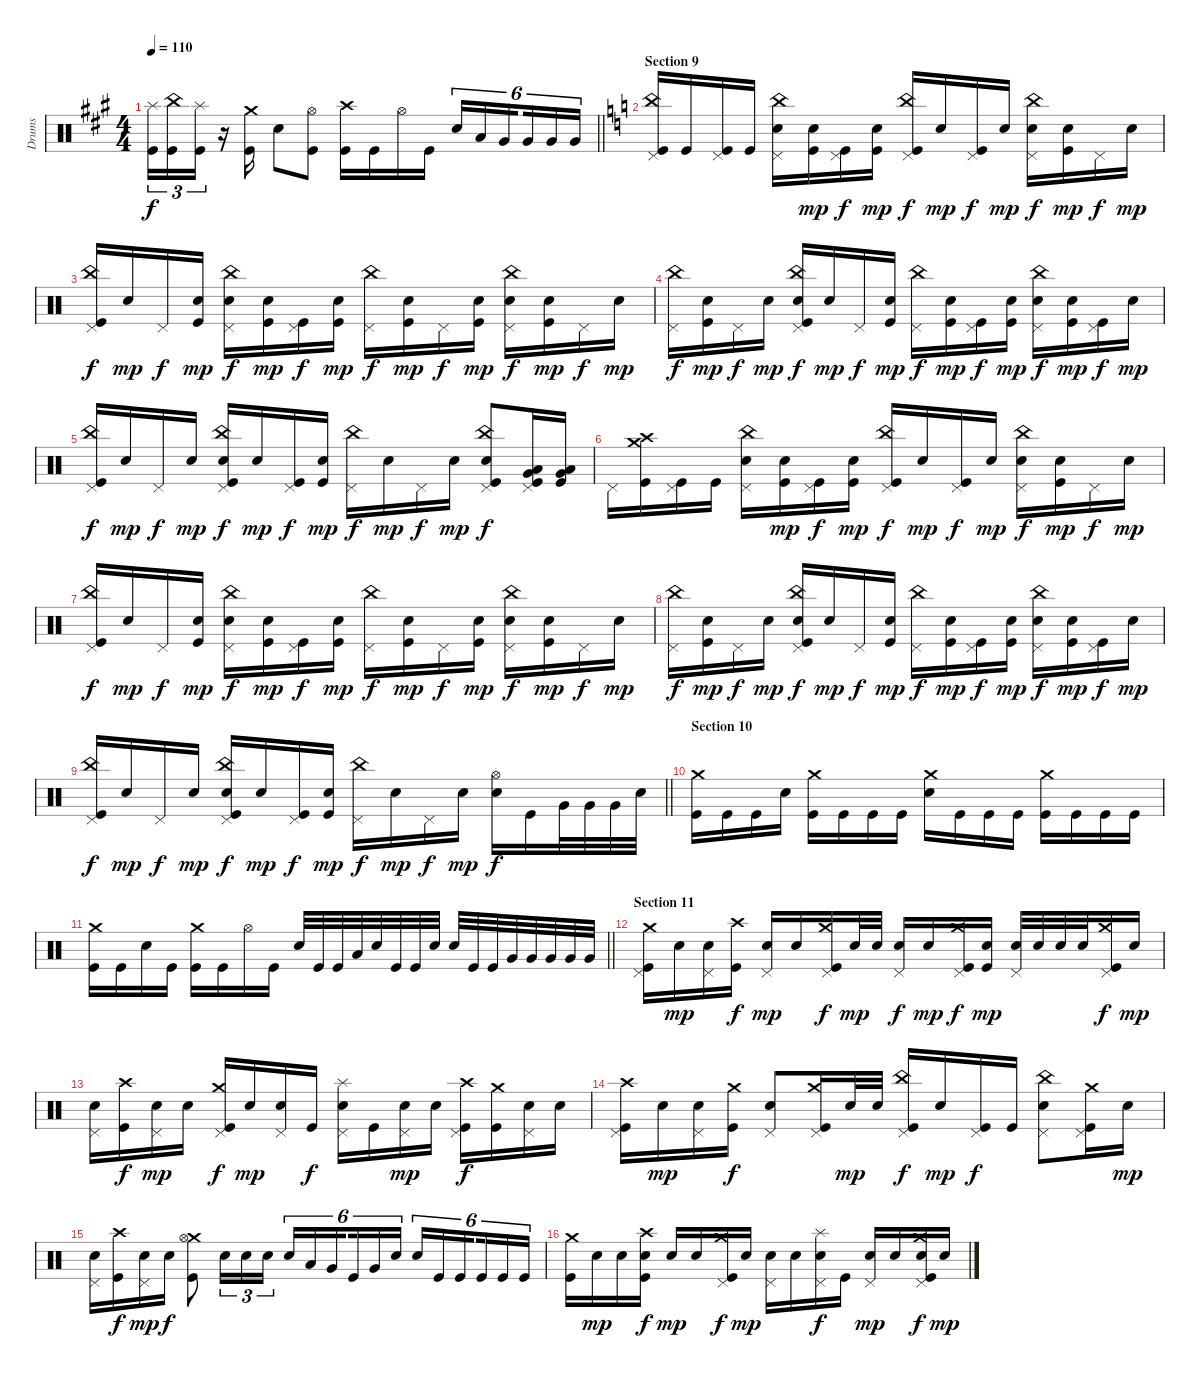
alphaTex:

\track ("Drums" "Drums") {instrument percussion}
\staff {score}
\articulation defaults
\ts (4 4)
\tempo 110
\clef neutral
\barLineRight lightlight
\ks f#minor
("Splash (hit)" "Kick (hit)").16{tu (3 2) dy f} ("China (hit)" "Kick (hit)").16{tu (3 2)} ("Splash (hit)" "Kick (hit)").16{tu (3 2)} r.16 ("Crash medium (hit)" "Kick (hit)").16 "Electric Snare (hit)".8 ("Hi-Hat (open)" "Kick (hit)").8 ("Crash high (hit)" "Kick (hit)").16 "Kick (hit)".16 "Hi-Hat (open)".16 "Kick (hit)".16 "Electric Snare (hit)".16{tu (6 4)} "Low Tom (hit)".16{tu (6 4)} "Very Low Tom (hit)".16{tu (6 4) beam splitsecondary} "Very Low Tom (hit)".16{tu (6 4)} "Very Low Tom (hit)".16{tu (6 4)} "Very Low Tom (hit)".16{tu (6 4)} |
\section ("" "Section 9")
\ks c
("China (hit)" "Kick (hit)" "Pedal Hi-Hat (hit)").16 "Kick (hit)".16 ("Kick (hit)" "Pedal Hi-Hat (hit)").16 "Kick (hit)".16 ("China (hit)" "Electric Snare (hit)" "Pedal Hi-Hat (hit)").16 ("Electric Snare (hit)" "Kick (hit)").16{dy mp} ("Kick (hit)" "Pedal Hi-Hat (hit)").16{dy f} ("Electric Snare (hit)" "Kick (hit)").16{dy mp} ("China (hit)" "Kick (hit)" "Pedal Hi-Hat (hit)").16{dy f} "Electric Snare (hit)".16{dy mp} ("Kick (hit)" "Pedal Hi-Hat (hit)").16{dy f} "Electric Snare (hit)".16{dy mp} ("China (hit)" "Electric Snare (hit)" "Pedal Hi-Hat (hit)").16{dy f} ("Electric Snare (hit)" "Kick (hit)").16{dy mp} "Pedal Hi-Hat (hit)".16{dy f} "Electric Snare (hit)".16{dy mp} |
("China (hit)" "Kick (hit)" "Pedal Hi-Hat (hit)").16{dy f} "Electric Snare (hit)".16{dy mp} "Pedal Hi-Hat (hit)".16{dy f} ("Electric Snare (hit)" "Kick (hit)").16{dy mp} ("China (hit)" "Electric Snare (hit)" "Pedal Hi-Hat (hit)").16{dy f} ("Electric Snare (hit)" "Kick (hit)").16{dy mp} ("Kick (hit)" "Pedal Hi-Hat (hit)").16{dy f} ("Electric Snare (hit)" "Kick (hit)").16{dy mp} ("China (hit)" "Pedal Hi-Hat (hit)").16{dy f} ("Electric Snare (hit)" "Kick (hit)").16{dy mp} "Pedal Hi-Hat (hit)".16{dy f} ("Electric Snare (hit)" "Kick (hit)").16{dy mp} ("China (hit)" "Electric Snare (hit)" "Pedal Hi-Hat (hit)").16{dy f} ("Electric Snare (hit)" "Kick (hit)").16{dy mp} "Pedal Hi-Hat (hit)".16{dy f} "Electric Snare (hit)".16{dy mp} |
("China (hit)" "Pedal Hi-Hat (hit)").16{dy f} ("Electric Snare (hit)" "Kick (hit)").16{dy mp} "Pedal Hi-Hat (hit)".16{dy f} "Electric Snare (hit)".16{dy mp} ("China (hit)" "Electric Snare (hit)" "Kick (hit)" "Pedal Hi-Hat (hit)").16{dy f} "Electric Snare (hit)".16{dy mp} "Pedal Hi-Hat (hit)".16{dy f} ("Electric Snare (hit)" "Kick (hit)").16{dy mp} ("China (hit)" "Pedal Hi-Hat (hit)").16{dy f} ("Electric Snare (hit)" "Kick (hit)").16{dy mp} ("Kick (hit)" "Pedal Hi-Hat (hit)").16{dy f} ("Electric Snare (hit)" "Kick (hit)").16{dy mp} ("China (hit)" "Electric Snare (hit)" "Pedal Hi-Hat (hit)").16{dy f} ("Electric Snare (hit)" "Kick (hit)").16{dy mp} ("Kick (hit)" "Pedal Hi-Hat (hit)").16{dy f} "Electric Snare (hit)".16{dy mp} |
("China (hit)" "Kick (hit)" "Pedal Hi-Hat (hit)").16{dy f} "Electric Snare (hit)".16{dy mp} "Pedal Hi-Hat (hit)".16{dy f} "Electric Snare (hit)".16{dy mp} ("China (hit)" "Electric Snare (hit)" "Kick (hit)" "Pedal Hi-Hat (hit)").16{dy f} "Electric Snare (hit)".16{dy mp} ("Kick (hit)" "Pedal Hi-Hat (hit)").16{dy f} ("Electric Snare (hit)" "Kick (hit)").16{dy mp} ("China (hit)" "Pedal Hi-Hat (hit)").16{dy f} "Electric Snare (hit)".16{dy mp} "Pedal Hi-Hat (hit)".16{dy f} "Electric Snare (hit)".16{dy mp} ("China (hit)" "Electric Snare (hit)" "Kick (hit)" "Pedal Hi-Hat (hit)").8{dy f} ("Low Tom (hit)" "Very Low Tom (hit)" "Kick (hit)" "Pedal Hi-Hat (hit)").16 ("Low Tom (hit)" "Very Low Tom (hit)" "Kick (hit)").16 |
"Pedal Hi-Hat (hit)".16 ("Crash high (hit)" "Crash medium (hit)" "Kick (hit)").16 ("Kick (hit)" "Pedal Hi-Hat (hit)").16 "Kick (hit)".16 ("China (hit)" "Electric Snare (hit)" "Pedal Hi-Hat (hit)").16 ("Electric Snare (hit)" "Kick (hit)").16{dy mp} ("Kick (hit)" "Pedal Hi-Hat (hit)").16{dy f} ("Electric Snare (hit)" "Kick (hit)").16{dy mp} ("China (hit)" "Kick (hit)" "Pedal Hi-Hat (hit)").16{dy f} "Electric Snare (hit)".16{dy mp} ("Kick (hit)" "Pedal Hi-Hat (hit)").16{dy f} "Electric Snare (hit)".16{dy mp} ("China (hit)" "Electric Snare (hit)" "Pedal Hi-Hat (hit)").16{dy f} ("Electric Snare (hit)" "Kick (hit)").16{dy mp} "Pedal Hi-Hat (hit)".16{dy f} "Electric Snare (hit)".16{dy mp} |
("China (hit)" "Kick (hit)" "Pedal Hi-Hat (hit)").16{dy f} "Electric Snare (hit)".16{dy mp} "Pedal Hi-Hat (hit)".16{dy f} ("Electric Snare (hit)" "Kick (hit)").16{dy mp} ("China (hit)" "Electric Snare (hit)" "Pedal Hi-Hat (hit)").16{dy f} ("Electric Snare (hit)" "Kick (hit)").16{dy mp} ("Kick (hit)" "Pedal Hi-Hat (hit)").16{dy f} ("Electric Snare (hit)" "Kick (hit)").16{dy mp} ("China (hit)" "Pedal Hi-Hat (hit)").16{dy f} ("Electric Snare (hit)" "Kick (hit)").16{dy mp} "Pedal Hi-Hat (hit)".16{dy f} ("Electric Snare (hit)" "Kick (hit)").16{dy mp} ("China (hit)" "Electric Snare (hit)" "Pedal Hi-Hat (hit)").16{dy f} ("Electric Snare (hit)" "Kick (hit)").16{dy mp} "Pedal Hi-Hat (hit)".16{dy f} "Electric Snare (hit)".16{dy mp} |
("China (hit)" "Pedal Hi-Hat (hit)").16{dy f} ("Electric Snare (hit)" "Kick (hit)").16{dy mp} "Pedal Hi-Hat (hit)".16{dy f} "Electric Snare (hit)".16{dy mp} ("China (hit)" "Electric Snare (hit)" "Kick (hit)" "Pedal Hi-Hat (hit)").16{dy f} "Electric Snare (hit)".16{dy mp} "Pedal Hi-Hat (hit)".16{dy f} ("Electric Snare (hit)" "Kick (hit)").16{dy mp} ("China (hit)" "Pedal Hi-Hat (hit)").16{dy f} ("Electric Snare (hit)" "Kick (hit)").16{dy mp} ("Kick (hit)" "Pedal Hi-Hat (hit)").16{dy f} ("Electric Snare (hit)" "Kick (hit)").16{dy mp} ("China (hit)" "Electric Snare (hit)" "Pedal Hi-Hat (hit)").16{dy f} ("Electric Snare (hit)" "Kick (hit)").16{dy mp} ("Kick (hit)" "Pedal Hi-Hat (hit)").16{dy f} "Electric Snare (hit)".16{dy mp} |
\barLineRight lightlight
("China (hit)" "Kick (hit)" "Pedal Hi-Hat (hit)").16{dy f} "Electric Snare (hit)".16{dy mp} "Pedal Hi-Hat (hit)".16{dy f} "Electric Snare (hit)".16{dy mp} ("China (hit)" "Electric Snare (hit)" "Kick (hit)" "Pedal Hi-Hat (hit)").16{dy f} "Electric Snare (hit)".16{dy mp} ("Kick (hit)" "Pedal Hi-Hat (hit)").16{dy f} ("Electric Snare (hit)" "Kick (hit)").16{dy mp} ("China (hit)" "Pedal Hi-Hat (hit)").16{dy f} "Electric Snare (hit)".16{dy mp} "Pedal Hi-Hat (hit)".16{dy f} "Electric Snare (hit)".16{dy mp} ("Hi-Hat (open)" "Electric Snare (hit)").16{dy f} "Kick (hit)".16 "Very Low Tom (hit)".32 "Very Low Tom (hit)".32 "Very Low Tom (hit)".32 "Electric Snare (hit)".32 |
\section ("" "Section 10")
("Crash medium (hit)" "Kick (hit)").16 "Kick (hit)".16 "Kick (hit)".16 "Electric Snare (hit)".16 ("Crash medium (hit)" "Kick (hit)").16 "Kick (hit)".16 "Kick (hit)".16 "Kick (hit)".16 ("Crash medium (hit)" "Electric Snare (hit)").16 "Kick (hit)".16 "Kick (hit)".16 "Kick (hit)".16 ("Crash medium (hit)" "Kick (hit)").16 "Kick (hit)".16 "Kick (hit)".16 "Kick (hit)".16 |
\barLineRight lightlight
("Crash medium (hit)" "Kick (hit)").16 "Kick (hit)".16 "Electric Snare (hit)".16 "Kick (hit)".16 ("Crash medium (hit)" "Kick (hit)").16 "Kick (hit)".16 "Hi-Hat (open)".16 "Kick (hit)".16 "Electric Snare (hit)".32 "Kick (hit)".32 "Kick (hit)".32 "Low Tom (hit)".32 "Electric Snare (hit)".32 "Kick (hit)".32 "Kick (hit)".32 "Electric Snare (hit)".32 "Electric Snare (hit)".32 "Kick (hit)".32 "Kick (hit)".32 "Very Low Tom (hit)".32 "Very Low Tom (hit)".32 "Very Low Tom (hit)".32 "Very Low Tom (hit)".32 "Very Low Tom (hit)".32 |
\section ("" "Section 11")
("Crash medium (hit)" "Kick (hit)" "Pedal Hi-Hat (hit)").16 "Electric Snare (hit)".16{dy mp} ("Electric Snare (hit)" "Pedal Hi-Hat (hit)").16 ("Crash high (hit)" "Kick (hit)").16{dy f} ("Electric Snare (hit)" "Pedal Hi-Hat (hit)").16{dy mp} "Electric Snare (hit)".16 ("Crash medium (hit)" "Kick (hit)" "Pedal Hi-Hat (hit)").16{dy f} "Electric Snare (hit)".32{dy mp} "Electric Snare (hit)".32 ("Electric Snare (hit)" "Pedal Hi-Hat (hit)").16{dy f} "Electric Snare (hit)".16{dy mp} ("Crash medium (hit)" "Kick (hit)" "Pedal Hi-Hat (hit)").16{dy f} ("Electric Snare (hit)" "Kick (hit)").16{dy mp} ("Electric Snare (hit)" "Pedal Hi-Hat (hit)").32 "Electric Snare (hit)".32 "Electric Snare (hit)".32 "Electric Snare (hit)".32 ("Crash medium (hit)" "Kick (hit)" "Pedal Hi-Hat (hit)").16{dy f} "Electric Snare (hit)".16{dy mp} |
("Electric Snare (hit)" "Pedal Hi-Hat (hit)").16 ("Crash high (hit)" "Kick (hit)").16{dy f} ("Electric Snare (hit)" "Pedal Hi-Hat (hit)").16{dy mp} "Electric Snare (hit)".16 ("Crash medium (hit)" "Kick (hit)" "Pedal Hi-Hat (hit)").16{dy f} "Electric Snare (hit)".16{dy mp} ("Electric Snare (hit)" "Pedal Hi-Hat (hit)").16 "Kick (hit)".16{dy f} ("Splash (hit)" "Electric Snare (hit)" "Pedal Hi-Hat (hit)").16 "Kick (hit)".16 ("Electric Snare (hit)" "Pedal Hi-Hat (hit)").16{dy mp} "Electric Snare (hit)".16 ("Crash high (hit)" "Kick (hit)" "Pedal Hi-Hat (hit)").16{dy f} ("Crash medium (hit)" "Kick (hit)").16 ("Electric Snare (hit)" "Pedal Hi-Hat (hit)").16 "Electric Snare (hit)".16 |
("Crash high (hit)" "Kick (hit)" "Pedal Hi-Hat (hit)").16 "Electric Snare (hit)".16{dy mp} ("Electric Snare (hit)" "Pedal Hi-Hat (hit)").16 ("Crash medium (hit)" "Kick (hit)").16{dy f} ("Electric Snare (hit)" "Pedal Hi-Hat (hit)").8 ("Crash medium (hit)" "Kick (hit)" "Pedal Hi-Hat (hit)").16 "Electric Snare (hit)".32{dy mp} "Electric Snare (hit)".32 ("China (hit)" "Kick (hit)" "Pedal Hi-Hat (hit)").16{dy f} "Electric Snare (hit)".16{dy mp} ("Kick (hit)" "Pedal Hi-Hat (hit)").16{dy f} "Kick (hit)".16 ("China (hit)" "Electric Snare (hit)" "Pedal Hi-Hat (hit)").8 ("Crash medium (hit)" "Kick (hit)" "Pedal Hi-Hat (hit)").16 "Electric Snare (hit)".16{dy mp} |
("Electric Snare (hit)" "Pedal Hi-Hat (hit)").16 ("Crash high (hit)" "Kick (hit)").16{dy f} ("Electric Snare (hit)" "Pedal Hi-Hat (hit)").16{dy mp} "Electric Snare (hit)".16{dy f} ("Crash medium (hit)" "Kick (hit)" "Hi-Hat (open)").8 "Electric Snare (hit)".16{tu (3 2)} "Electric Snare (hit)".16{tu (3 2)} "Electric Snare (hit)".16{tu (3 2)} "Electric Snare (hit)".16{tu (6 4)} "Low Tom (hit)".16{tu (6 4)} "Very Low Tom (hit)".16{tu (6 4) beam splitsecondary} "Kick (hit)".16{tu (6 4)} "Very Low Tom (hit)".16{tu (6 4)} "Electric Snare (hit)".16{tu (6 4)} "Electric Snare (hit)".16{tu (6 4)} "Kick (hit)".16{tu (6 4)} "Kick (hit)".16{tu (6 4) beam splitsecondary} "Kick (hit)".16{tu (6 4)} "Kick (hit)".16{tu (6 4)} "Kick (hit)".16{tu (6 4)} |
("Crash medium (hit)" "Kick (hit)").16 "Electric Snare (hit)".16{dy mp} "Electric Snare (hit)".16 ("Crash high (hit)" "Electric Snare (hit)" "Kick (hit)").16{dy f} "Electric Snare (hit)".16{dy mp} "Electric Snare (hit)".16 ("Crash medium (hit)" "Kick (hit)" "Pedal Hi-Hat (hit)").16{dy f} "Electric Snare (hit)".16{dy mp} ("Electric Snare (hit)" "Pedal Hi-Hat (hit)").16 "Electric Snare (hit)".16 ("Splash (hit)" "Electric Snare (hit)" "Pedal Hi-Hat (hit)").16{dy f} "Kick (hit)".16 ("Electric Snare (hit)" "Pedal Hi-Hat (hit)").16{dy mp} "Electric Snare (hit)".16 ("Crash medium (hit)" "Electric Snare (hit)" "Kick (hit)" "Pedal Hi-Hat (hit)").16{dy f} "Electric Snare (hit)".16{dy mp}
